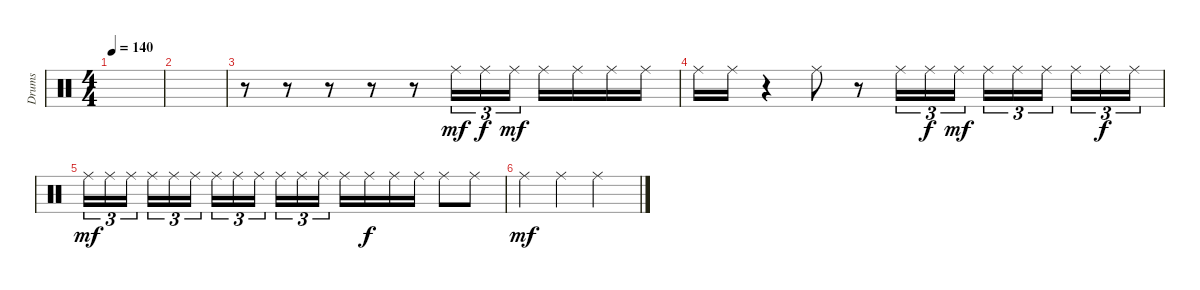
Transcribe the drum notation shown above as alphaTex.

\track ("Drums" "Drums") {instrument percussion}
\staff {score}
\articulation defaults
\ts (4 4)
\tempo 140
\clef neutral
\ks c
|
|
r.8 r.8 r.8 r.8 r.8 "Ride (middle)".16{tu (3 2) dy mf} "Ride (middle)".16{tu (3 2) dy f} "Ride (middle)".16{tu (3 2) dy mf} "Ride (middle)".16 "Ride (middle)".16 "Ride (middle)".16 "Ride (middle)".16 |
"Ride (middle)".16 "Ride (middle)".16 r.4 "Ride (middle)".8 r.8 "Ride (middle)".16{tu (3 2)} "Ride (middle)".16{tu (3 2) dy f} "Ride (middle)".16{tu (3 2) dy mf} "Ride (middle)".16{tu (3 2)} "Ride (middle)".16{tu (3 2)} "Ride (middle)".16{tu (3 2) beam splitsecondary} "Ride (middle)".16{tu (3 2)} "Ride (middle)".16{tu (3 2) dy f} "Ride (middle)".16{tu (3 2)} |
"Ride (middle)".16{tu (3 2) dy mf} "Ride (middle)".16{tu (3 2)} "Ride (middle)".16{tu (3 2) beam splitsecondary} "Ride (middle)".16{tu (3 2)} "Ride (middle)".16{tu (3 2)} "Ride (middle)".16{tu (3 2)} "Ride (middle)".16{tu (3 2)} "Ride (middle)".16{tu (3 2)} "Ride (middle)".16{tu (3 2) beam splitsecondary} "Ride (middle)".16{tu (3 2)} "Ride (middle)".16{tu (3 2)} "Ride (middle)".16{tu (3 2)} "Ride (middle)".16 "Ride (middle)".16{dy f} "Ride (middle)".16 "Ride (middle)".16 "Ride (middle)".8 "Ride (middle)".8 |
"Ride (middle)".4{dy mf} "Ride (middle)".4 "Ride (middle)".2
